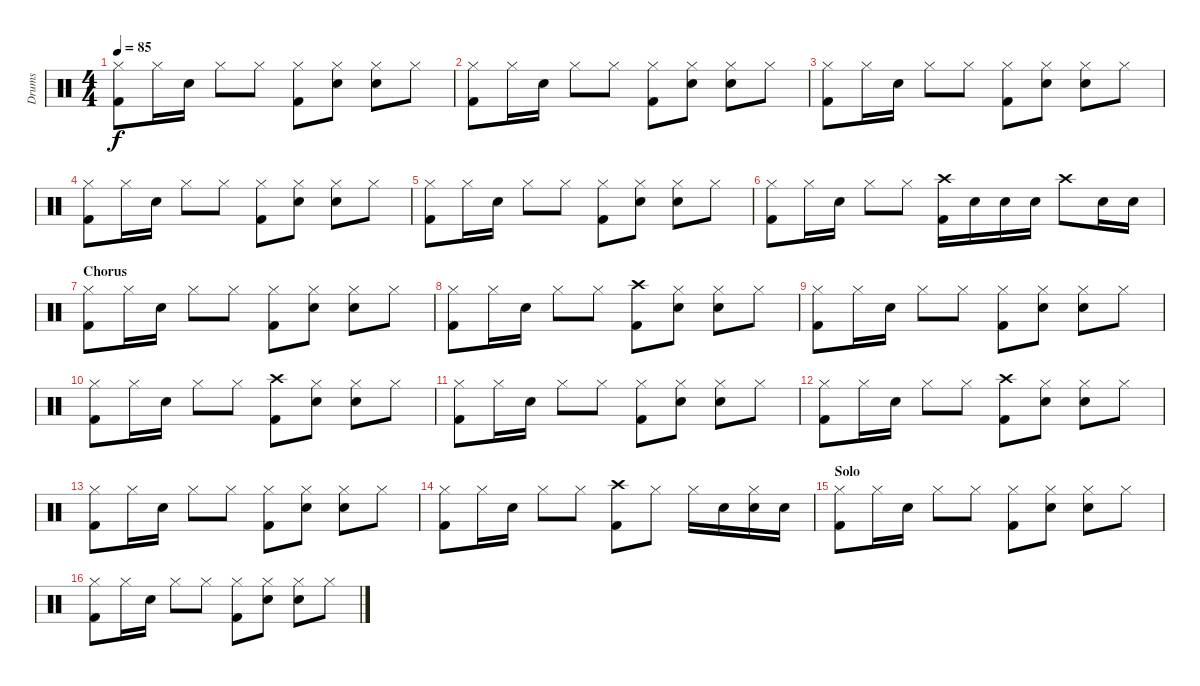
\track ("Drums" "Drums") {instrument percussion}
\staff {score}
\articulation defaults
\ts (4 4)
\tempo 85
\clef neutral
\ks c
("Hi-Hat (closed)" "Kick (hit) 2").8{dy f} "Hi-Hat (closed)".16 "Snare (hit) 2".16 "Hi-Hat (closed)".8 "Hi-Hat (closed)".8 ("Hi-Hat (closed)" "Kick (hit) 2").8 ("Hi-Hat (closed)" "Snare (hit) 2").8 ("Hi-Hat (closed)" "Snare (hit) 2").8 "Hi-Hat (closed)".8 |
("Hi-Hat (closed)" "Kick (hit) 2").8 "Hi-Hat (closed)".16 "Snare (hit) 2".16 "Hi-Hat (closed)".8 "Hi-Hat (closed)".8 ("Hi-Hat (closed)" "Kick (hit) 2").8 ("Hi-Hat (closed)" "Snare (hit) 2").8 ("Hi-Hat (closed)" "Snare (hit) 2").8 "Hi-Hat (closed)".8 |
("Hi-Hat (closed)" "Kick (hit) 2").8 "Hi-Hat (closed)".16 "Snare (hit) 2".16 "Hi-Hat (closed)".8 "Hi-Hat (closed)".8 ("Hi-Hat (closed)" "Kick (hit) 2").8 ("Hi-Hat (closed)" "Snare (hit) 2").8 ("Hi-Hat (closed)" "Snare (hit) 2").8 "Hi-Hat (closed)".8 |
("Hi-Hat (closed)" "Kick (hit) 2").8 "Hi-Hat (closed)".16 "Snare (hit) 2".16 "Hi-Hat (closed)".8 "Hi-Hat (closed)".8 ("Hi-Hat (closed)" "Kick (hit) 2").8 ("Hi-Hat (closed)" "Snare (hit) 2").8 ("Hi-Hat (closed)" "Snare (hit) 2").8 "Hi-Hat (closed)".8 |
("Hi-Hat (closed)" "Kick (hit) 2").8 "Hi-Hat (closed)".16 "Snare (hit) 2".16 "Hi-Hat (closed)".8 "Hi-Hat (closed)".8 ("Hi-Hat (closed)" "Kick (hit) 2").8 ("Hi-Hat (closed)" "Snare (hit) 2").8 ("Hi-Hat (closed)" "Snare (hit) 2").8 "Hi-Hat (closed)".8 |
("Hi-Hat (closed)" "Kick (hit) 2").8 "Hi-Hat (closed)".16 "Snare (hit) 2".16 "Hi-Hat (closed)".8 "Hi-Hat (closed)".8 ("Crash high (hit)" "Kick (hit) 2").16 "Snare (hit) 2".16 "Snare (hit) 2".16 "Snare (hit) 2".16 "Crash high (hit)".8 "Snare (hit) 2".16 "Snare (hit) 2".16 |
\section ("" "Chorus")
("Hi-Hat (closed)" "Kick (hit) 2").8 "Hi-Hat (closed)".16 "Snare (hit) 2".16 "Hi-Hat (closed)".8 "Hi-Hat (closed)".8 ("Hi-Hat (closed)" "Kick (hit) 2").8 ("Hi-Hat (closed)" "Snare (hit) 2").8 ("Hi-Hat (closed)" "Snare (hit) 2").8 "Hi-Hat (closed)".8 |
("Hi-Hat (closed)" "Kick (hit) 2").8 "Hi-Hat (closed)".16 "Snare (hit) 2".16 "Hi-Hat (closed)".8 "Hi-Hat (closed)".8 ("Crash high (hit)" "Kick (hit) 2").8 ("Hi-Hat (closed)" "Snare (hit) 2").8 ("Hi-Hat (closed)" "Snare (hit) 2").8 "Hi-Hat (closed)".8 |
("Hi-Hat (closed)" "Kick (hit) 2").8 "Hi-Hat (closed)".16 "Snare (hit) 2".16 "Hi-Hat (closed)".8 "Hi-Hat (closed)".8 ("Hi-Hat (closed)" "Kick (hit) 2").8 ("Hi-Hat (closed)" "Snare (hit) 2").8 ("Hi-Hat (closed)" "Snare (hit) 2").8 "Hi-Hat (closed)".8 |
("Hi-Hat (closed)" "Kick (hit) 2").8 "Hi-Hat (closed)".16 "Snare (hit) 2".16 "Hi-Hat (closed)".8 "Hi-Hat (closed)".8 ("Crash high (hit)" "Kick (hit) 2").8 ("Hi-Hat (closed)" "Snare (hit) 2").8 ("Hi-Hat (closed)" "Snare (hit) 2").8 "Hi-Hat (closed)".8 |
("Hi-Hat (closed)" "Kick (hit) 2").8 "Hi-Hat (closed)".16 "Snare (hit) 2".16 "Hi-Hat (closed)".8 "Hi-Hat (closed)".8 ("Hi-Hat (closed)" "Kick (hit) 2").8 ("Hi-Hat (closed)" "Snare (hit) 2").8 ("Hi-Hat (closed)" "Snare (hit) 2").8 "Hi-Hat (closed)".8 |
("Hi-Hat (closed)" "Kick (hit) 2").8 "Hi-Hat (closed)".16 "Snare (hit) 2".16 "Hi-Hat (closed)".8 "Hi-Hat (closed)".8 ("Crash high (hit)" "Kick (hit) 2").8 ("Hi-Hat (closed)" "Snare (hit) 2").8 ("Hi-Hat (closed)" "Snare (hit) 2").8 "Hi-Hat (closed)".8 |
("Hi-Hat (closed)" "Kick (hit) 2").8 "Hi-Hat (closed)".16 "Snare (hit) 2".16 "Hi-Hat (closed)".8 "Hi-Hat (closed)".8 ("Hi-Hat (closed)" "Kick (hit) 2").8 ("Hi-Hat (closed)" "Snare (hit) 2").8 ("Hi-Hat (closed)" "Snare (hit) 2").8 "Hi-Hat (closed)".8 |
("Hi-Hat (closed)" "Kick (hit) 2").8 "Hi-Hat (closed)".16 "Snare (hit) 2".16 "Hi-Hat (closed)".8 "Hi-Hat (closed)".8 ("Crash high (hit)" "Kick (hit) 2").8 "Hi-Hat (closed)".8 "Hi-Hat (closed)".16 "Snare (hit) 2".16 ("Hi-Hat (closed)" "Snare (hit) 2").16 "Snare (hit) 2".16 |
\section ("" "Solo")
("Hi-Hat (closed)" "Kick (hit) 2").8 "Hi-Hat (closed)".16 "Snare (hit) 2".16 "Hi-Hat (closed)".8 "Hi-Hat (closed)".8 ("Hi-Hat (closed)" "Kick (hit) 2").8 ("Hi-Hat (closed)" "Snare (hit) 2").8 ("Hi-Hat (closed)" "Snare (hit) 2").8 "Hi-Hat (closed)".8 |
("Hi-Hat (closed)" "Kick (hit) 2").8 "Hi-Hat (closed)".16 "Snare (hit) 2".16 "Hi-Hat (closed)".8 "Hi-Hat (closed)".8 ("Hi-Hat (closed)" "Kick (hit) 2").8 ("Hi-Hat (closed)" "Snare (hit) 2").8 ("Hi-Hat (closed)" "Snare (hit) 2").8 "Hi-Hat (closed)".8
